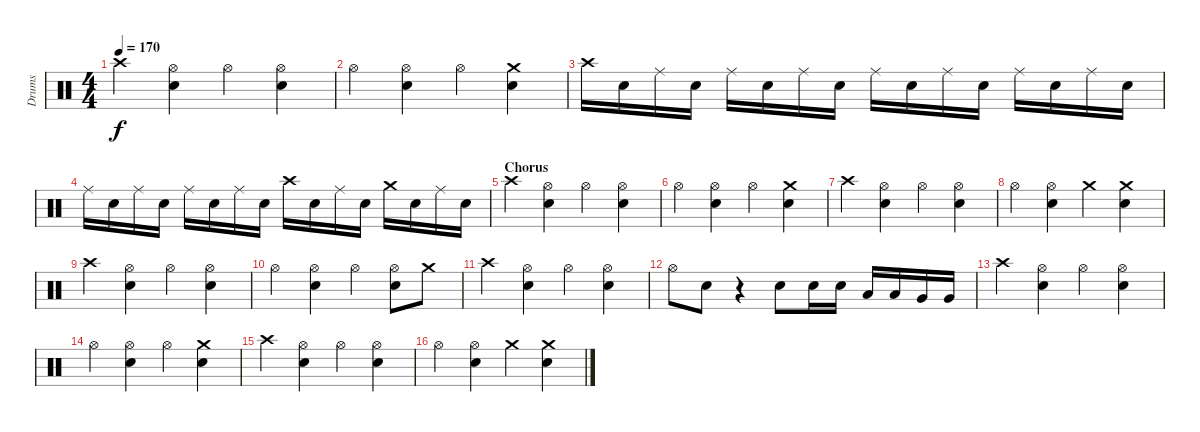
\track ("Drums" "Drums") {instrument percussion}
\staff {score}
\articulation defaults
\ts (4 4)
\tempo 170
\clef neutral
\ks c "Crash high (hit)".4{dy f}
("Hi-Hat (open)" "Electric Snare (hit)").4 "Hi-Hat (open)".4 ("Hi-Hat (open)" "Electric Snare (hit)").4 |
"Hi-Hat (open)".4 ("Hi-Hat (open)" "Electric Snare (hit)").4 "Hi-Hat (open)".4 ("Crash medium (hit)" "Electric Snare (hit)").4 |
"Crash high (hit)".16 "Electric Snare (hit)".16 "Ride (middle)".16 "Electric Snare (hit)".16 "Ride (middle)".16 "Electric Snare (hit)".16 "Ride (middle)".16 "Electric Snare (hit)".16 "Ride (middle)".16 "Electric Snare (hit)".16 "Ride (middle)".16 "Electric Snare (hit)".16 "Ride (middle)".16 "Electric Snare (hit)".16 "Ride (middle)".16 "Electric Snare (hit)".16 |
"Ride (middle)".16 "Electric Snare (hit)".16 "Ride (middle)".16 "Electric Snare (hit)".16 "Ride (middle)".16 "Electric Snare (hit)".16 "Ride (middle)".16 "Electric Snare (hit)".16 "Crash high (hit)".16 "Electric Snare (hit)".16 "Ride (middle)".16 "Electric Snare (hit)".16 "Crash medium (hit)".16 "Electric Snare (hit)".16 "Ride (middle)".16 "Electric Snare (hit)".16 |
\section ("" "Chorus")
"Crash high (hit)".4 ("Hi-Hat (open)" "Electric Snare (hit)").4 "Hi-Hat (open)".4 ("Hi-Hat (open)" "Electric Snare (hit)").4 |
"Hi-Hat (open)".4 ("Hi-Hat (open)" "Electric Snare (hit)").4 "Hi-Hat (open)".4 ("Crash medium (hit)" "Electric Snare (hit)").4 |
"Crash high (hit)".4 ("Hi-Hat (open)" "Electric Snare (hit)").4 "Hi-Hat (open)".4 ("Hi-Hat (open)" "Electric Snare (hit)").4 |
"Hi-Hat (open)".4 ("Hi-Hat (open)" "Electric Snare (hit)").4 "Crash medium (hit)".4 ("Crash medium (hit)" "Electric Snare (hit)").4 |
"Crash high (hit)".4 ("Hi-Hat (open)" "Electric Snare (hit)").4 "Hi-Hat (open)".4 ("Hi-Hat (open)" "Electric Snare (hit)").4 |
"Hi-Hat (open)".4 ("Hi-Hat (open)" "Electric Snare (hit)").4 "Hi-Hat (open)".4 ("Hi-Hat (open)" "Electric Snare (hit)").8 "Crash medium (hit)".8 |
"Crash high (hit)".4 ("Hi-Hat (open)" "Electric Snare (hit)").4 "Hi-Hat (open)".4 ("Hi-Hat (open)" "Electric Snare (hit)").4 |
"Hi-Hat (open)".8 "Electric Snare (hit)".8 r.4 "Electric Snare (hit)".8 "Electric Snare (hit)".16 "Electric Snare (hit)".16 "Low Tom (hit)".16 "Low Tom (hit)".16 "Very Low Tom (hit)".16 "Very Low Tom (hit)".16 |
"Crash high (hit)".4 ("Hi-Hat (open)" "Electric Snare (hit)").4 "Hi-Hat (open)".4 ("Hi-Hat (open)" "Electric Snare (hit)").4 |
"Hi-Hat (open)".4 ("Hi-Hat (open)" "Electric Snare (hit)").4 "Hi-Hat (open)".4 ("Crash medium (hit)" "Electric Snare (hit)").4 |
"Crash high (hit)".4 ("Hi-Hat (open)" "Electric Snare (hit)").4 "Hi-Hat (open)".4 ("Hi-Hat (open)" "Electric Snare (hit)").4 |
"Hi-Hat (open)".4 ("Hi-Hat (open)" "Electric Snare (hit)").4 "Crash medium (hit)".4 ("Crash medium (hit)" "Electric Snare (hit)").4
